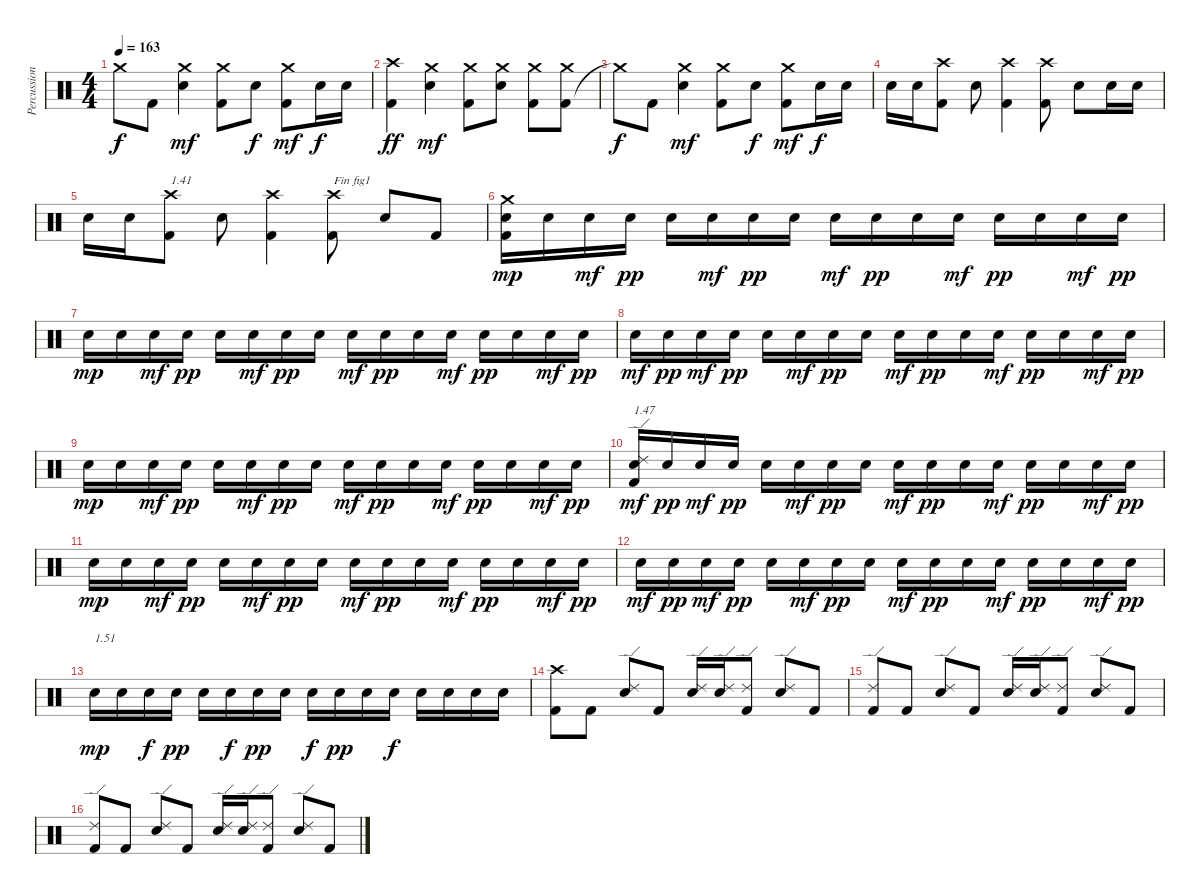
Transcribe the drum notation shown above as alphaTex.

\track ("Percussions" "Percussion") {instrument percussion}
\staff {score}
\articulation defaults
\ts (4 4)
\tempo 163
\clef neutral
\ks c "Crash medium (hit)"{t}.8{dy f} "Kick (hit) 2".8
("Electric Snare (hit)" "Crash medium (hit)").4{dy mf} ("Kick (hit) 2" "Crash medium (hit)").8 "Electric Snare (hit)".8{dy f} ("Kick (hit) 2" "Crash medium (hit)").8{dy mf} "Electric Snare (hit)".16{dy f} "Electric Snare (hit)".16 |
("Kick (hit) 2" "Crash high (hit)").4{dy ff} ("Electric Snare (hit)" "Crash medium (hit)").4{dy mf} ("Kick (hit) 2" "Crash medium (hit)").8 ("Electric Snare (hit)" "Crash medium (hit)").8 ("Kick (hit) 2" "Crash medium (hit)").8 ("Kick (hit) 2" "Crash medium (hit)").8 |
"Crash medium (hit)"{t}.8{dy f} "Kick (hit) 2".8 ("Electric Snare (hit)" "Crash medium (hit)").4{dy mf} ("Kick (hit) 2" "Crash medium (hit)").8 "Electric Snare (hit)".8{dy f} ("Kick (hit) 2" "Crash medium (hit)").8{dy mf} "Electric Snare (hit)".16{dy f} "Electric Snare (hit)".16 |
"Electric Snare (hit)".16 "Electric Snare (hit)".16 ("Kick (hit) 2" "Crash high (hit)").8 "Electric Snare (hit)".8 ("Kick (hit) 2" "Crash high (hit)").4 ("Kick (hit) 2" "Crash high (hit)").8 "Electric Snare (hit)".8 "Electric Snare (hit)".16 "Electric Snare (hit)".16 |
"Electric Snare (hit)".16 "Electric Snare (hit)".16 ("Kick (hit) 2" "Crash high (hit)").8{txt "1.41"} "Electric Snare (hit)".8 ("Kick (hit) 2" "Crash high (hit)").4 ("Kick (hit) 2" "Crash high (hit)").8{txt "Fin fig1"} "Electric Snare (hit)".8 "Kick (hit) 2".8 |
("Electric Snare (hit)" "Crash medium (hit)" "Kick (hit) 2").16{dy mp} "Electric Snare (hit)".16 "Electric Snare (hit)".16{dy mf} "Electric Snare (hit)".16{dy pp} "Electric Snare (hit)".16 "Electric Snare (hit)".16{dy mf} "Electric Snare (hit)".16{dy pp} "Electric Snare (hit)".16 "Electric Snare (hit)".16{dy mf} "Electric Snare (hit)".16{dy pp} "Electric Snare (hit)".16 "Electric Snare (hit)".16{dy mf} "Electric Snare (hit)".16{dy pp} "Electric Snare (hit)".16 "Electric Snare (hit)".16{dy mf} "Electric Snare (hit)".16{dy pp} |
"Electric Snare (hit)".16{dy mp} "Electric Snare (hit)".16 "Electric Snare (hit)".16{dy mf} "Electric Snare (hit)".16{dy pp} "Electric Snare (hit)".16 "Electric Snare (hit)".16{dy mf} "Electric Snare (hit)".16{dy pp} "Electric Snare (hit)".16 "Electric Snare (hit)".16{dy mf} "Electric Snare (hit)".16{dy pp} "Electric Snare (hit)".16 "Electric Snare (hit)".16{dy mf} "Electric Snare (hit)".16{dy pp} "Electric Snare (hit)".16 "Electric Snare (hit)".16{dy mf} "Electric Snare (hit)".16{dy pp} |
"Electric Snare (hit)".16{dy mf} "Electric Snare (hit)".16{dy pp} "Electric Snare (hit)".16{dy mf} "Electric Snare (hit)".16{dy pp} "Electric Snare (hit)".16 "Electric Snare (hit)".16{dy mf} "Electric Snare (hit)".16{dy pp} "Electric Snare (hit)".16 "Electric Snare (hit)".16{dy mf} "Electric Snare (hit)".16{dy pp} "Electric Snare (hit)".16 "Electric Snare (hit)".16{dy mf} "Electric Snare (hit)".16{dy pp} "Electric Snare (hit)".16 "Electric Snare (hit)".16{dy mf} "Electric Snare (hit)".16{dy pp} |
"Electric Snare (hit)".16{dy mp} "Electric Snare (hit)".16 "Electric Snare (hit)".16{dy mf} "Electric Snare (hit)".16{dy pp} "Electric Snare (hit)".16 "Electric Snare (hit)".16{dy mf} "Electric Snare (hit)".16{dy pp} "Electric Snare (hit)".16 "Electric Snare (hit)".16{dy mf} "Electric Snare (hit)".16{dy pp} "Electric Snare (hit)".16 "Electric Snare (hit)".16{dy mf} "Electric Snare (hit)".16{dy pp} "Electric Snare (hit)".16 "Electric Snare (hit)".16{dy mf} "Electric Snare (hit)".16{dy pp} |
("Kick (hit) 2" "Electric Snare (hit)" "Ride (edge) 2").16{txt "1.47" dy mf} "Electric Snare (hit)".16{dy pp} "Electric Snare (hit)".16{dy mf} "Electric Snare (hit)".16{dy pp} "Electric Snare (hit)".16 "Electric Snare (hit)".16{dy mf} "Electric Snare (hit)".16{dy pp} "Electric Snare (hit)".16 "Electric Snare (hit)".16{dy mf} "Electric Snare (hit)".16{dy pp} "Electric Snare (hit)".16 "Electric Snare (hit)".16{dy mf} "Electric Snare (hit)".16{dy pp} "Electric Snare (hit)".16 "Electric Snare (hit)".16{dy mf} "Electric Snare (hit)".16{dy pp} |
"Electric Snare (hit)".16{dy mp} "Electric Snare (hit)".16 "Electric Snare (hit)".16{dy mf} "Electric Snare (hit)".16{dy pp} "Electric Snare (hit)".16 "Electric Snare (hit)".16{dy mf} "Electric Snare (hit)".16{dy pp} "Electric Snare (hit)".16 "Electric Snare (hit)".16{dy mf} "Electric Snare (hit)".16{dy pp} "Electric Snare (hit)".16 "Electric Snare (hit)".16{dy mf} "Electric Snare (hit)".16{dy pp} "Electric Snare (hit)".16 "Electric Snare (hit)".16{dy mf} "Electric Snare (hit)".16{dy pp} |
"Electric Snare (hit)".16{dy mf} "Electric Snare (hit)".16{dy pp} "Electric Snare (hit)".16{dy mf} "Electric Snare (hit)".16{dy pp} "Electric Snare (hit)".16 "Electric Snare (hit)".16{dy mf} "Electric Snare (hit)".16{dy pp} "Electric Snare (hit)".16 "Electric Snare (hit)".16{dy mf} "Electric Snare (hit)".16{dy pp} "Electric Snare (hit)".16 "Electric Snare (hit)".16{dy mf} "Electric Snare (hit)".16{dy pp} "Electric Snare (hit)".16 "Electric Snare (hit)".16{dy mf} "Electric Snare (hit)".16{dy pp} |
"Electric Snare (hit)".16{txt "1.51" dy mp} "Electric Snare (hit)".16 "Electric Snare (hit)".16{dy f} "Electric Snare (hit)".16{dy pp} "Electric Snare (hit)".16 "Electric Snare (hit)".16{dy f} "Electric Snare (hit)".16{dy pp} "Electric Snare (hit)".16 "Electric Snare (hit)".16{dy f} "Electric Snare (hit)".16{dy pp} "Electric Snare (hit)".16 "Electric Snare (hit)".16{dy f} "Electric Snare (hit)".16 "Electric Snare (hit)".16 "Electric Snare (hit)".16 "Electric Snare (hit)".16 |
("Kick (hit) 2" "Crash high (hit)").8 "Kick (hit) 2".8 ("Electric Snare (hit)" "Ride (edge) 2").8 "Kick (hit) 2".8 ("Electric Snare (hit)" "Ride (edge) 2").16 ("Electric Snare (hit)" "Ride (edge) 2").16 ("Kick (hit) 2" "Ride (edge) 2").8 ("Electric Snare (hit)" "Ride (edge) 2").8 "Kick (hit) 2".8 |
("Kick (hit) 2" "Ride (edge) 2").8 "Kick (hit) 2".8 ("Electric Snare (hit)" "Ride (edge) 2").8 "Kick (hit) 2".8 ("Electric Snare (hit)" "Ride (edge) 2").16 ("Electric Snare (hit)" "Ride (edge) 2").16 ("Kick (hit) 2" "Ride (edge) 2").8 ("Electric Snare (hit)" "Ride (edge) 2").8 "Kick (hit) 2".8 |
("Kick (hit) 2" "Ride (edge) 2").8 "Kick (hit) 2".8 ("Electric Snare (hit)" "Ride (edge) 2").8 "Kick (hit) 2".8 ("Electric Snare (hit)" "Ride (edge) 2").16 ("Electric Snare (hit)" "Ride (edge) 2").16 ("Kick (hit) 2" "Ride (edge) 2").8 ("Electric Snare (hit)" "Ride (edge) 2").8 "Kick (hit) 2".8
